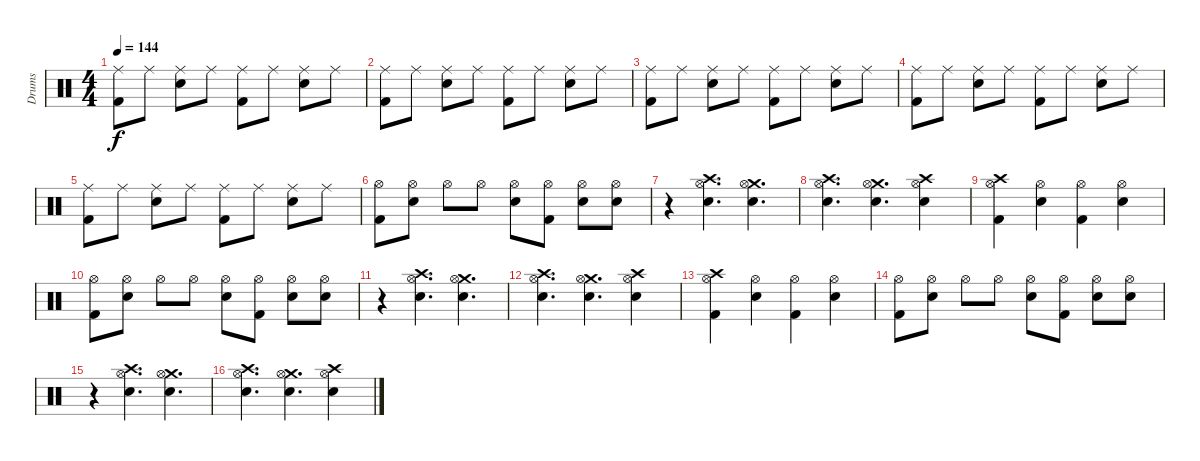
\track ("Drums" "Drums") {instrument percussion}
\staff {score}
\articulation defaults
\ts (4 4)
\tempo 144
\clef neutral
\ks c
("Ride (middle)" "Kick (hit) 2").8{dy f} "Ride (middle)".8 ("Ride (middle)" "Electric Snare (hit)").8 "Ride (middle)".8 ("Ride (middle)" "Kick (hit) 2").8 "Ride (middle)".8 ("Ride (middle)" "Electric Snare (hit)").8 "Ride (middle)".8 |
("Ride (middle)" "Kick (hit) 2").8 "Ride (middle)".8 ("Ride (middle)" "Electric Snare (hit)").8 "Ride (middle)".8 ("Ride (middle)" "Kick (hit) 2").8 "Ride (middle)".8 ("Ride (middle)" "Electric Snare (hit)").8 "Ride (middle)".8 |
("Ride (middle)" "Kick (hit) 2").8 "Ride (middle)".8 ("Ride (middle)" "Electric Snare (hit)").8 "Ride (middle)".8 ("Ride (middle)" "Kick (hit) 2").8 "Ride (middle)".8 ("Ride (middle)" "Electric Snare (hit)").8 "Ride (middle)".8 |
("Ride (middle)" "Kick (hit) 2").8 "Ride (middle)".8 ("Ride (middle)" "Electric Snare (hit)").8 "Ride (middle)".8 ("Ride (middle)" "Kick (hit) 2").8 "Ride (middle)".8 ("Ride (middle)" "Electric Snare (hit)").8 "Ride (middle)".8 |
("Ride (middle)" "Kick (hit) 2").8 "Ride (middle)".8 ("Ride (middle)" "Electric Snare (hit)").8 "Ride (middle)".8 ("Ride (middle)" "Kick (hit) 2").8 "Ride (middle)".8 ("Ride (middle)" "Electric Snare (hit)").8 "Ride (middle)".8 |
("Hi-Hat (open)" "Kick (hit) 2").8 ("Hi-Hat (open)" "Electric Snare (hit)").8 "Hi-Hat (open)".8 "Hi-Hat (open)".8 ("Hi-Hat (open)" "Electric Snare (hit)").8 ("Hi-Hat (open)" "Kick (hit) 2").8 ("Hi-Hat (open)" "Electric Snare (hit)").8 ("Hi-Hat (open)" "Electric Snare (hit)").8 |
r.4 ("Crash high (hit)" "Hi-Hat (open)" "Electric Snare (hit)").4{d} ("Crash medium (hit)" "Hi-Hat (open)" "Electric Snare (hit)").4{d} |
("Crash high (hit)" "Hi-Hat (open)" "Electric Snare (hit)").4{d} ("Crash medium (hit)" "Hi-Hat (open)" "Electric Snare (hit)").4{d} ("Crash high (hit)" "Hi-Hat (open)" "Electric Snare (hit)").4 |
("Crash high (hit)" "Hi-Hat (open)" "Kick (hit) 2").4 ("Hi-Hat (open)" "Electric Snare (hit)").4 ("Hi-Hat (open)" "Kick (hit) 2").4 ("Hi-Hat (open)" "Electric Snare (hit)").4 |
("Hi-Hat (open)" "Kick (hit) 2").8 ("Hi-Hat (open)" "Electric Snare (hit)").8 "Hi-Hat (open)".8 "Hi-Hat (open)".8 ("Hi-Hat (open)" "Electric Snare (hit)").8 ("Hi-Hat (open)" "Kick (hit) 2").8 ("Hi-Hat (open)" "Electric Snare (hit)").8 ("Hi-Hat (open)" "Electric Snare (hit)").8 |
r.4 ("Crash high (hit)" "Hi-Hat (open)" "Electric Snare (hit)").4{d} ("Crash medium (hit)" "Hi-Hat (open)" "Electric Snare (hit)").4{d} |
("Crash high (hit)" "Hi-Hat (open)" "Electric Snare (hit)").4{d} ("Crash medium (hit)" "Hi-Hat (open)" "Electric Snare (hit)").4{d} ("Crash high (hit)" "Hi-Hat (open)" "Electric Snare (hit)").4 |
("Crash high (hit)" "Hi-Hat (open)" "Kick (hit) 2").4 ("Hi-Hat (open)" "Electric Snare (hit)").4 ("Hi-Hat (open)" "Kick (hit) 2").4 ("Hi-Hat (open)" "Electric Snare (hit)").4 |
("Hi-Hat (open)" "Kick (hit) 2").8 ("Hi-Hat (open)" "Electric Snare (hit)").8 "Hi-Hat (open)".8 "Hi-Hat (open)".8 ("Hi-Hat (open)" "Electric Snare (hit)").8 ("Hi-Hat (open)" "Kick (hit) 2").8 ("Hi-Hat (open)" "Electric Snare (hit)").8 ("Hi-Hat (open)" "Electric Snare (hit)").8 |
r.4 ("Crash high (hit)" "Hi-Hat (open)" "Electric Snare (hit)").4{d} ("Crash medium (hit)" "Hi-Hat (open)" "Electric Snare (hit)").4{d} |
("Crash high (hit)" "Hi-Hat (open)" "Electric Snare (hit)").4{d} ("Crash medium (hit)" "Hi-Hat (open)" "Electric Snare (hit)").4{d} ("Crash high (hit)" "Hi-Hat (open)" "Electric Snare (hit)").4
